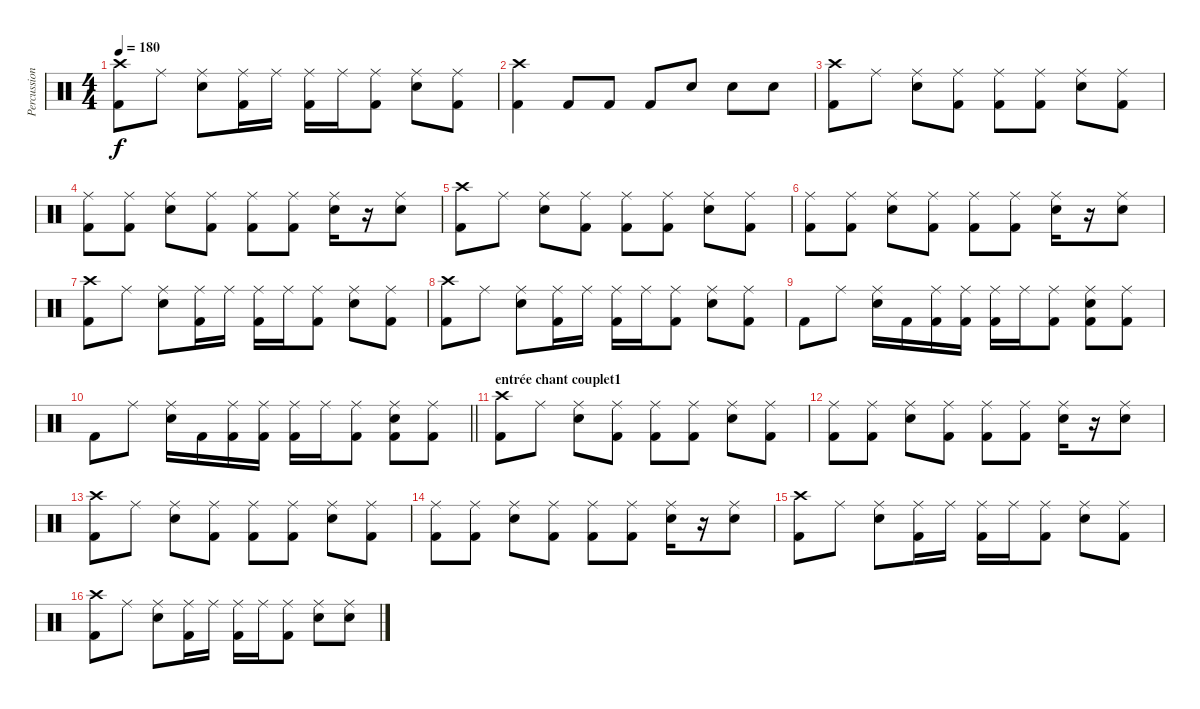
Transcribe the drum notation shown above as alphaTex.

\track ("Percussions" "Percussion") {instrument percussion}
\staff {score}
\articulation defaults
\ts (4 4)
\tempo 180
\clef neutral
\ks c
("Crash high (hit)" "Kick (hit) 2").8{dy f} "Ride (middle)".8 ("Ride (middle)" "Snare (hit) 2").8 ("Ride (middle)" "Kick (hit) 2").16 "Ride (middle)".16 ("Ride (middle)" "Kick (hit) 2").16 "Ride (middle)".16 ("Ride (middle)" "Kick (hit) 2").8 ("Ride (middle)" "Snare (hit) 2").8 ("Ride (middle)" "Kick (hit) 2").8 |
("Crash high (hit)" "Kick (hit) 2").4 "Kick (hit) 2".8 "Kick (hit) 2".8 "Kick (hit) 2".8 "Snare (hit) 2".8 "Snare (hit) 2".8 "Snare (hit) 2".8 |
("Crash high (hit)" "Kick (hit) 2").8 "Ride (middle)".8 ("Ride (middle)" "Snare (hit) 2").8 ("Ride (middle)" "Kick (hit) 2").8 ("Ride (middle)" "Kick (hit) 2").8 ("Ride (middle)" "Kick (hit) 2").8 ("Ride (middle)" "Snare (hit) 2").8 ("Ride (middle)" "Kick (hit) 2").8 |
("Ride (middle)" "Kick (hit) 2").8 ("Ride (middle)" "Kick (hit) 2").8 ("Ride (middle)" "Snare (hit) 2").8 ("Ride (middle)" "Kick (hit) 2").8 ("Ride (middle)" "Kick (hit) 2").8 ("Ride (middle)" "Kick (hit) 2").8 ("Ride (middle)" "Snare (hit) 2").16 r.16 ("Ride (middle)" "Snare (hit) 2").8 |
("Crash high (hit)" "Kick (hit) 2").8 "Ride (middle)".8 ("Ride (middle)" "Snare (hit) 2").8 ("Ride (middle)" "Kick (hit) 2").8 ("Ride (middle)" "Kick (hit) 2").8 ("Ride (middle)" "Kick (hit) 2").8 ("Ride (middle)" "Snare (hit) 2").8 ("Ride (middle)" "Kick (hit) 2").8 |
("Ride (middle)" "Kick (hit) 2").8 ("Ride (middle)" "Kick (hit) 2").8 ("Ride (middle)" "Snare (hit) 2").8 ("Ride (middle)" "Kick (hit) 2").8 ("Ride (middle)" "Kick (hit) 2").8 ("Ride (middle)" "Kick (hit) 2").8 ("Ride (middle)" "Snare (hit) 2").16 r.16 ("Ride (middle)" "Snare (hit) 2").8 |
("Crash high (hit)" "Kick (hit) 2").8 "Ride (middle)".8 ("Ride (middle)" "Snare (hit) 2").8 ("Ride (middle)" "Kick (hit) 2").16 "Ride (middle)".16 ("Ride (middle)" "Kick (hit) 2").16 "Ride (middle)".16 ("Ride (middle)" "Kick (hit) 2").8 ("Ride (middle)" "Snare (hit) 2").8 ("Ride (middle)" "Kick (hit) 2").8 |
("Crash high (hit)" "Kick (hit) 2").8 "Ride (middle)".8 ("Ride (middle)" "Snare (hit) 2").8 ("Ride (middle)" "Kick (hit) 2").16 "Ride (middle)".16 ("Ride (middle)" "Kick (hit) 2").16 "Ride (middle)".16 ("Ride (middle)" "Kick (hit) 2").8 ("Ride (middle)" "Snare (hit) 2").8 ("Ride (middle)" "Kick (hit) 2").8 |
"Kick (hit) 2".8 "Ride (middle)".8 ("Ride (middle)" "Snare (hit) 2").16 "Kick (hit) 2".16 ("Ride (middle)" "Kick (hit) 2").16 ("Ride (middle)" "Kick (hit) 2").16 ("Ride (middle)" "Kick (hit) 2").16 "Ride (middle)".16 ("Ride (middle)" "Kick (hit) 2").8 ("Ride (middle)" "Snare (hit) 2" "Kick (hit) 2").8 ("Ride (middle)" "Kick (hit) 2").8 |
\barLineRight lightlight "Kick (hit) 2".8 "Ride (middle)".8
("Ride (middle)" "Snare (hit) 2").16 "Kick (hit) 2".16 ("Ride (middle)" "Kick (hit) 2").16 ("Ride (middle)" "Kick (hit) 2").16 ("Ride (middle)" "Kick (hit) 2").16 "Ride (middle)".16 ("Ride (middle)" "Kick (hit) 2").8 ("Ride (middle)" "Snare (hit) 2" "Kick (hit) 2").8 ("Ride (middle)" "Kick (hit) 2").8 |
\section ("" "entrée chant couplet1")
("Crash high (hit)" "Kick (hit) 2").8 "Ride (middle)".8 ("Ride (middle)" "Snare (hit) 2").8 ("Ride (middle)" "Kick (hit) 2").8 ("Ride (middle)" "Kick (hit) 2").8 ("Ride (middle)" "Kick (hit) 2").8 ("Ride (middle)" "Snare (hit) 2").8 ("Ride (middle)" "Kick (hit) 2").8 |
("Ride (middle)" "Kick (hit) 2").8 ("Ride (middle)" "Kick (hit) 2").8 ("Ride (middle)" "Snare (hit) 2").8 ("Ride (middle)" "Kick (hit) 2").8 ("Ride (middle)" "Kick (hit) 2").8 ("Ride (middle)" "Kick (hit) 2").8 ("Ride (middle)" "Snare (hit) 2").16 r.16 ("Ride (middle)" "Snare (hit) 2").8 |
("Crash high (hit)" "Kick (hit) 2").8 "Ride (middle)".8 ("Ride (middle)" "Snare (hit) 2").8 ("Ride (middle)" "Kick (hit) 2").8 ("Ride (middle)" "Kick (hit) 2").8 ("Ride (middle)" "Kick (hit) 2").8 ("Ride (middle)" "Snare (hit) 2").8 ("Ride (middle)" "Kick (hit) 2").8 |
("Ride (middle)" "Kick (hit) 2").8 ("Ride (middle)" "Kick (hit) 2").8 ("Ride (middle)" "Snare (hit) 2").8 ("Ride (middle)" "Kick (hit) 2").8 ("Ride (middle)" "Kick (hit) 2").8 ("Ride (middle)" "Kick (hit) 2").8 ("Ride (middle)" "Snare (hit) 2").16 r.16 ("Ride (middle)" "Snare (hit) 2").8 |
("Crash high (hit)" "Kick (hit) 2").8 "Ride (middle)".8 ("Ride (middle)" "Snare (hit) 2").8 ("Ride (middle)" "Kick (hit) 2").16 "Ride (middle)".16 ("Ride (middle)" "Kick (hit) 2").16 "Ride (middle)".16 ("Ride (middle)" "Kick (hit) 2").8 ("Ride (middle)" "Snare (hit) 2").8 ("Ride (middle)" "Kick (hit) 2").8 |
("Crash high (hit)" "Kick (hit) 2").8 "Ride (middle)".8 ("Ride (middle)" "Snare (hit) 2").8 ("Ride (middle)" "Kick (hit) 2").16 "Ride (middle)".16 ("Ride (middle)" "Kick (hit) 2").16 "Ride (middle)".16 ("Ride (middle)" "Kick (hit) 2").8 ("Ride (middle)" "Snare (hit) 2").8 ("Ride (middle)" "Snare (hit) 2").8
